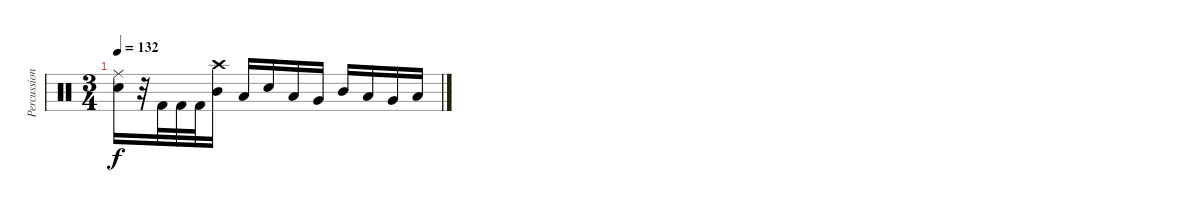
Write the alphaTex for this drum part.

\track ("Percussion" "Percussion") {instrument percussion}
\staff {score}
\articulation defaults
\ts (3 4)
\tempo 132
\clef neutral
\ks c
("Ride (middle)" "Electric Snare (hit)").16{dy f} r.32 "Kick (hit) 2".32 "Kick (hit) 2".32 "Kick (hit) 2".32 ("Crash high (hit)" "Mid Tom (hit)").16 "Low Tom (hit)".16 "Electric Snare (hit)".16 "Low Tom (hit)".16 "Very Low Tom (hit)".16 "Mid Tom (hit)".16 "Low Tom (hit)".16 "Very Low Tom (hit)".16 "Low Floor Tom (hit)".16
